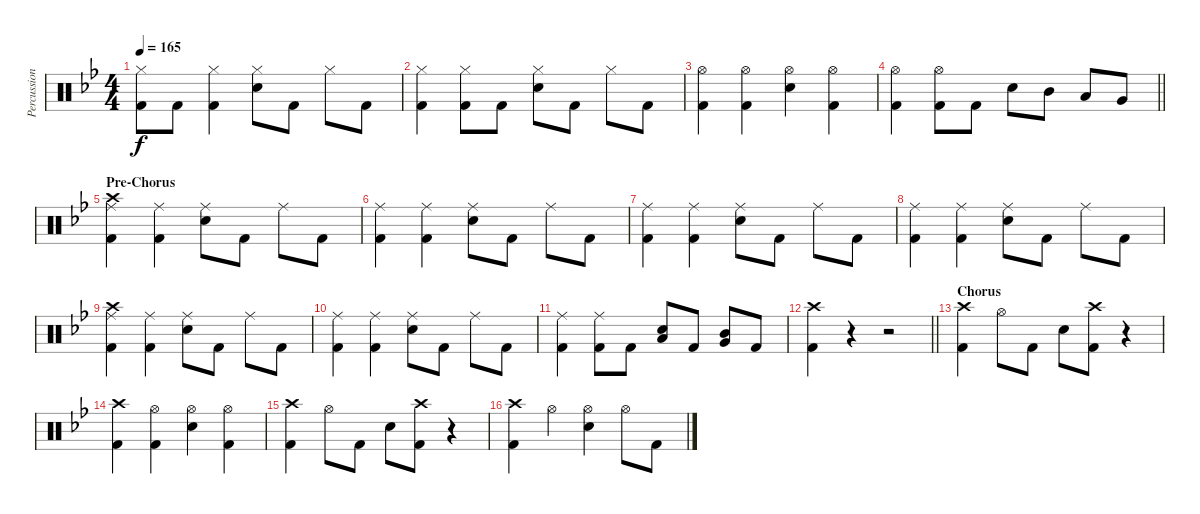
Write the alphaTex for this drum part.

\track ("Percussion - Aaron" "Percussion") {instrument percussion}
\staff {score}
\articulation defaults
\ts (4 4)
\tempo 165
\clef neutral
\ks gminor
("Hi-Hat (closed)" "Kick (hit) 2").8{dy f} "Kick (hit) 2".8 ("Hi-Hat (closed)" "Kick (hit) 2").4 ("Hi-Hat (closed)" "Electric Snare (hit)").8 "Kick (hit) 2".8 "Hi-Hat (closed)".8 "Kick (hit) 2".8 |
("Hi-Hat (closed)" "Kick (hit) 2").4 ("Hi-Hat (closed)" "Kick (hit) 2").8 "Kick (hit) 2".8 ("Hi-Hat (closed)" "Electric Snare (hit)").8 "Kick (hit) 2".8 "Hi-Hat (closed)".8 "Kick (hit) 2".8 |
("Hi-Hat (open)" "Kick (hit) 2").4 ("Hi-Hat (open)" "Kick (hit) 2").4 ("Hi-Hat (open)" "Electric Snare (hit)").4 ("Hi-Hat (open)" "Kick (hit) 2").4 |
\barLineRight lightlight
("Hi-Hat (open)" "Kick (hit) 2").4 ("Hi-Hat (open)" "Kick (hit) 2").8 "Kick (hit) 2".8 "Electric Snare (hit)".8 "Mid Tom (hit)".8 "Low Tom (hit)".8 "Very Low Tom (hit)".8 |
\section ("" "Pre-Chorus")
("Crash high (hit)" "Ride (middle)" "Kick (hit) 2").4 ("Ride (middle)" "Kick (hit) 2").4 ("Ride (middle)" "Electric Snare (hit)").8 "Kick (hit) 2".8 "Ride (middle)".8 "Kick (hit) 2".8 |
("Ride (middle)" "Kick (hit) 2").4 ("Ride (middle)" "Kick (hit) 2").4 ("Ride (middle)" "Electric Snare (hit)").8 "Kick (hit) 2".8 "Ride (middle)".8 "Kick (hit) 2".8 |
("Ride (middle)" "Kick (hit) 2").4 ("Ride (middle)" "Kick (hit) 2").4 ("Ride (middle)" "Electric Snare (hit)").8 "Kick (hit) 2".8 "Ride (middle)".8 "Kick (hit) 2".8 |
("Ride (middle)" "Kick (hit) 2").4 ("Ride (middle)" "Kick (hit) 2").4 ("Ride (middle)" "Electric Snare (hit)").8 "Kick (hit) 2".8 "Ride (middle)".8 "Kick (hit) 2".8 |
("Crash high (hit)" "Ride (middle)" "Kick (hit) 2").4 ("Ride (middle)" "Kick (hit) 2").4 ("Ride (middle)" "Electric Snare (hit)").8 "Kick (hit) 2".8 "Ride (middle)".8 "Kick (hit) 2".8 |
("Ride (middle)" "Kick (hit) 2").4 ("Ride (middle)" "Kick (hit) 2").4 ("Ride (middle)" "Electric Snare (hit)").8 "Kick (hit) 2".8 "Ride (middle)".8 "Kick (hit) 2".8 |
("Ride (middle)" "Kick (hit) 2").4 ("Ride (middle)" "Kick (hit) 2").8 "Kick (hit) 2".8 ("Low Tom (hit)" "Electric Snare (hit)").8 "Kick (hit) 2".8 ("Mid Tom (hit)" "Very Low Tom (hit)").8 "Kick (hit) 2".8 |
\barLineRight lightlight
("Crash high (hit)" "Kick (hit) 2").4 r.4 r.2 |
\section ("" "Chorus")
("Crash high (hit)" "Kick (hit) 2").4 "Hi-Hat (open)".8 "Kick (hit) 2".8 "Electric Snare (hit)".8 ("Crash high (hit)" "Kick (hit) 2").8 r.4 |
("Crash high (hit)" "Kick (hit) 2").4 ("Hi-Hat (open)" "Kick (hit) 2").4 ("Hi-Hat (open)" "Electric Snare (hit)").4 ("Hi-Hat (open)" "Kick (hit) 2").4 |
("Crash high (hit)" "Kick (hit) 2").4 "Hi-Hat (open)".8 "Kick (hit) 2".8 "Electric Snare (hit)".8 ("Crash high (hit)" "Kick (hit) 2").8 r.4 |
("Crash high (hit)" "Kick (hit) 2").4 "Hi-Hat (open)".4 ("Hi-Hat (open)" "Electric Snare (hit)").4 "Hi-Hat (open)".8 "Kick (hit) 2".8
